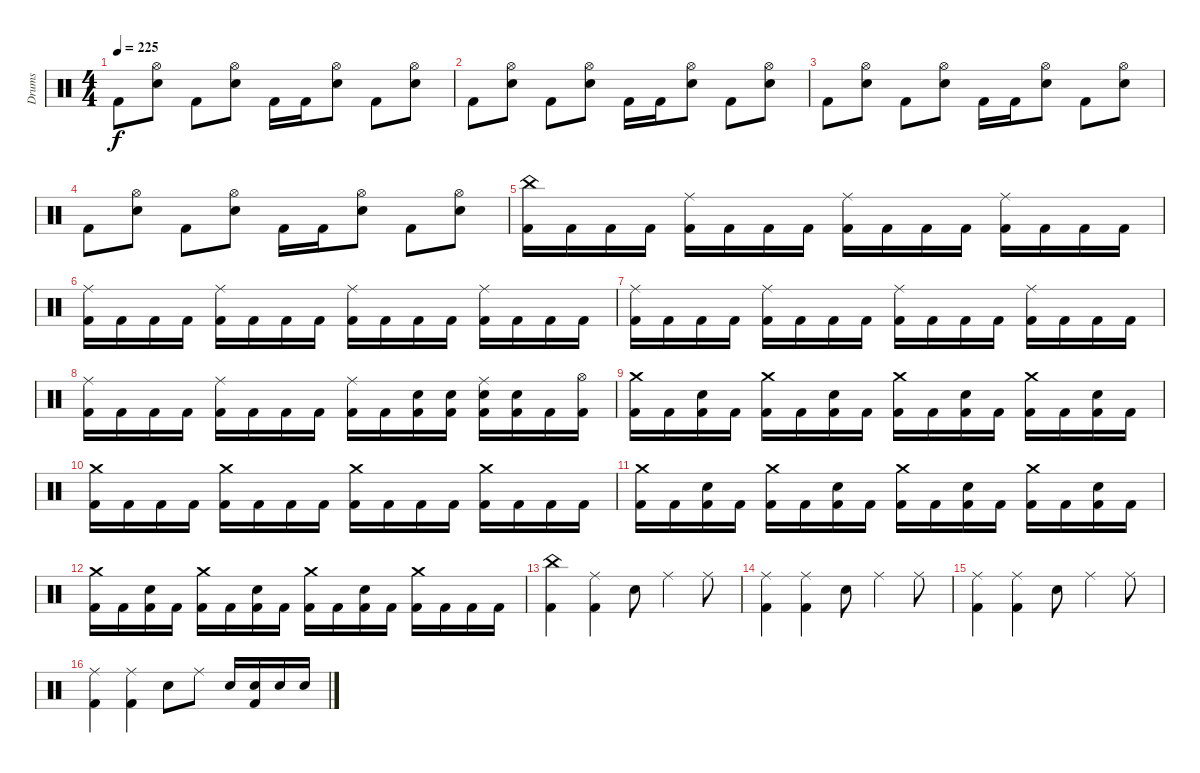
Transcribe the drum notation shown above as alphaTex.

\track ("Drums" "Drums") {instrument percussion}
\staff {score}
\articulation defaults
\ts (4 4)
\tempo 225
\clef neutral
\ks c "Kick (hit) 2".8{dy f}
("Hi-Hat (open)" "Electric Snare (hit)").8 "Kick (hit) 2".8 ("Hi-Hat (open)" "Electric Snare (hit)").8 "Kick (hit) 2".16 "Kick (hit) 2".16 ("Hi-Hat (open)" "Electric Snare (hit)").8 "Kick (hit) 2".8 ("Hi-Hat (open)" "Electric Snare (hit)").8 |
"Kick (hit) 2".8 ("Hi-Hat (open)" "Electric Snare (hit)").8 "Kick (hit) 2".8 ("Hi-Hat (open)" "Electric Snare (hit)").8 "Kick (hit) 2".16 "Kick (hit) 2".16 ("Hi-Hat (open)" "Electric Snare (hit)").8 "Kick (hit) 2".8 ("Hi-Hat (open)" "Electric Snare (hit)").8 |
"Kick (hit) 2".8 ("Hi-Hat (open)" "Electric Snare (hit)").8 "Kick (hit) 2".8 ("Hi-Hat (open)" "Electric Snare (hit)").8 "Kick (hit) 2".16 "Kick (hit) 2".16 ("Hi-Hat (open)" "Electric Snare (hit)").8 "Kick (hit) 2".8 ("Hi-Hat (open)" "Electric Snare (hit)").8 |
"Kick (hit) 2".8 ("Hi-Hat (open)" "Electric Snare (hit)").8 "Kick (hit) 2".8 ("Hi-Hat (open)" "Electric Snare (hit)").8 "Kick (hit) 2".16 "Kick (hit) 2".16 ("Hi-Hat (open)" "Electric Snare (hit)").8 "Kick (hit) 2".8 ("Hi-Hat (open)" "Electric Snare (hit)").8 |
("China (hit)" "Kick (hit) 2").16 "Kick (hit) 2".16 "Kick (hit) 2".16 "Kick (hit) 2".16 ("Ride (middle)" "Kick (hit) 2").16 "Kick (hit) 2".16 "Kick (hit) 2".16 "Kick (hit) 2".16 ("Ride (middle)" "Kick (hit) 2").16 "Kick (hit) 2".16 "Kick (hit) 2".16 "Kick (hit) 2".16 ("Ride (middle)" "Kick (hit) 2").16 "Kick (hit) 2".16 "Kick (hit) 2".16 "Kick (hit) 2".16 |
("Ride (middle)" "Kick (hit) 2").16 "Kick (hit) 2".16 "Kick (hit) 2".16 "Kick (hit) 2".16 ("Ride (middle)" "Kick (hit) 2").16 "Kick (hit) 2".16 "Kick (hit) 2".16 "Kick (hit) 2".16 ("Ride (middle)" "Kick (hit) 2").16 "Kick (hit) 2".16 "Kick (hit) 2".16 "Kick (hit) 2".16 ("Ride (middle)" "Kick (hit) 2").16 "Kick (hit) 2".16 "Kick (hit) 2".16 "Kick (hit) 2".16 |
("Ride (middle)" "Kick (hit) 2").16 "Kick (hit) 2".16 "Kick (hit) 2".16 "Kick (hit) 2".16 ("Ride (middle)" "Kick (hit) 2").16 "Kick (hit) 2".16 "Kick (hit) 2".16 "Kick (hit) 2".16 ("Ride (middle)" "Kick (hit) 2").16 "Kick (hit) 2".16 "Kick (hit) 2".16 "Kick (hit) 2".16 ("Ride (middle)" "Kick (hit) 2").16 "Kick (hit) 2".16 "Kick (hit) 2".16 "Kick (hit) 2".16 |
("Ride (middle)" "Kick (hit) 2").16 "Kick (hit) 2".16 "Kick (hit) 2".16 "Kick (hit) 2".16 ("Ride (middle)" "Kick (hit) 2").16 "Kick (hit) 2".16 "Kick (hit) 2".16 "Kick (hit) 2".16 ("Ride (middle)" "Kick (hit) 2").16 "Kick (hit) 2".16 ("Electric Snare (hit)" "Kick (hit) 2").16 ("Electric Snare (hit)" "Kick (hit) 2").16 ("Ride (middle)" "Electric Snare (hit)" "Kick (hit) 2").16 ("Electric Snare (hit)" "Kick (hit) 2").16 "Kick (hit) 2".16 ("Hi-Hat (open)" "Kick (hit) 2").16 |
("Crash medium (hit)" "Kick (hit) 2").16 "Kick (hit) 2".16 ("Electric Snare (hit)" "Kick (hit) 2").16 "Kick (hit) 2".16 ("Crash medium (hit)" "Kick (hit) 2").16 "Kick (hit) 2".16 ("Electric Snare (hit)" "Kick (hit) 2").16 "Kick (hit) 2".16 ("Crash medium (hit)" "Kick (hit) 2").16 "Kick (hit) 2".16 ("Electric Snare (hit)" "Kick (hit) 2").16 "Kick (hit) 2".16 ("Crash medium (hit)" "Kick (hit) 2").16 "Kick (hit) 2".16 ("Electric Snare (hit)" "Kick (hit) 2").16 "Kick (hit) 2".16 |
("Crash medium (hit)" "Kick (hit) 2").16 "Kick (hit) 2".16 "Kick (hit) 2".16 "Kick (hit) 2".16 ("Crash medium (hit)" "Kick (hit) 2").16 "Kick (hit) 2".16 "Kick (hit) 2".16 "Kick (hit) 2".16 ("Crash medium (hit)" "Kick (hit) 2").16 "Kick (hit) 2".16 "Kick (hit) 2".16 "Kick (hit) 2".16 ("Crash medium (hit)" "Kick (hit) 2").16 "Kick (hit) 2".16 "Kick (hit) 2".16 "Kick (hit) 2".16 |
("Crash medium (hit)" "Kick (hit) 2").16 "Kick (hit) 2".16 ("Electric Snare (hit)" "Kick (hit) 2").16 "Kick (hit) 2".16 ("Crash medium (hit)" "Kick (hit) 2").16 "Kick (hit) 2".16 ("Electric Snare (hit)" "Kick (hit) 2").16 "Kick (hit) 2".16 ("Crash medium (hit)" "Kick (hit) 2").16 "Kick (hit) 2".16 ("Electric Snare (hit)" "Kick (hit) 2").16 "Kick (hit) 2".16 ("Crash medium (hit)" "Kick (hit) 2").16 "Kick (hit) 2".16 ("Electric Snare (hit)" "Kick (hit) 2").16 "Kick (hit) 2".16 |
("Crash medium (hit)" "Kick (hit) 2").16 "Kick (hit) 2".16 ("Electric Snare (hit)" "Kick (hit) 2").16 "Kick (hit) 2".16 ("Crash medium (hit)" "Kick (hit) 2").16 "Kick (hit) 2".16 ("Electric Snare (hit)" "Kick (hit) 2").16 "Kick (hit) 2".16 ("Crash medium (hit)" "Kick (hit) 2").16 "Kick (hit) 2".16 ("Electric Snare (hit)" "Kick (hit) 2").16 "Kick (hit) 2".16 ("Crash medium (hit)" "Kick (hit) 2").16 "Kick (hit) 2".16 "Kick (hit) 2".16 "Kick (hit) 2".16 |
("China (hit)" "Kick (hit) 2").4 ("Ride (middle)" "Kick (hit) 2").4 "Electric Snare (hit)".8 "Ride (middle)".4 "Ride (middle)".8 |
("Ride (middle)" "Kick (hit) 2").4 ("Ride (middle)" "Kick (hit) 2").4 "Electric Snare (hit)".8 "Ride (middle)".4 "Ride (middle)".8 |
("Ride (middle)" "Kick (hit) 2").4 ("Ride (middle)" "Kick (hit) 2").4 "Electric Snare (hit)".8 "Ride (middle)".4 "Ride (middle)".8 |
("Ride (middle)" "Kick (hit) 2").4 ("Ride (middle)" "Kick (hit) 2").4 "Electric Snare (hit)".8 "Ride (middle)".8 "Electric Snare (hit)".16 ("Electric Snare (hit)" "Kick (hit) 2").16 "Electric Snare (hit)".16 "Electric Snare (hit)".16
